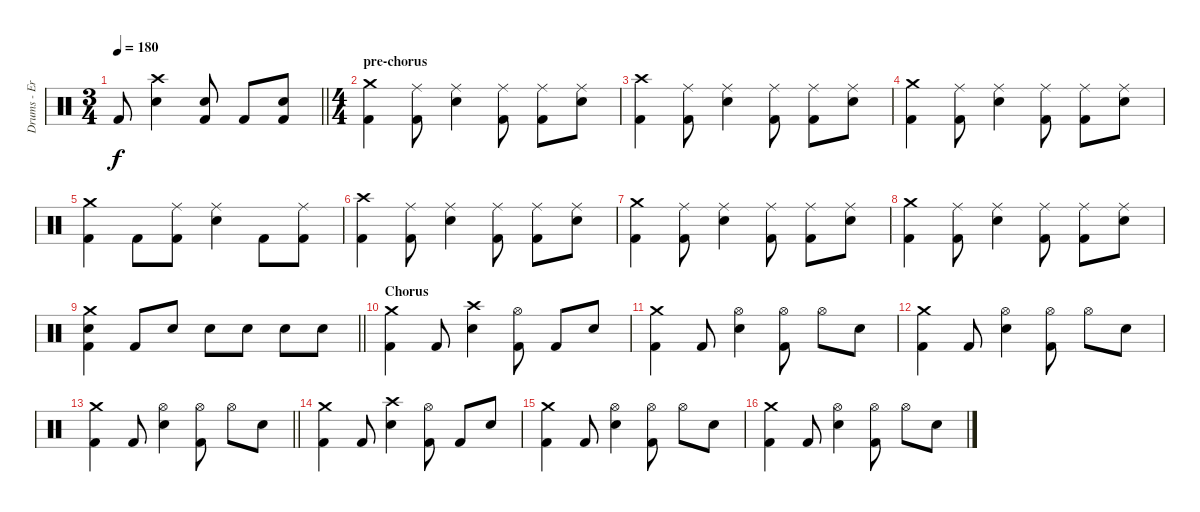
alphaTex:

\track ("Drums - Eric Young" "Drums - Er") {instrument percussion}
\staff {score}
\articulation defaults
\ts (3 4)
\tempo 180
\clef neutral
\barLineRight lightlight
\ks c "Kick (hit) 2".8{dy f}
("Crash high (hit)" "Electric Snare (hit)").4 ("Electric Snare (hit)" "Kick (hit) 2").8 "Kick (hit) 2".8 ("Electric Snare (hit)" "Kick (hit) 2").8 |
\ts (4 4)
\section ("" "pre-chorus")
("Crash medium (hit)" "Kick (hit) 2").4 ("Ride (middle)" "Kick (hit) 2").8 ("Ride (middle)" "Electric Snare (hit)").4 ("Ride (middle)" "Kick (hit) 2").8 ("Ride (middle)" "Kick (hit) 2").8 ("Ride (middle)" "Electric Snare (hit)").8 |
("Crash high (hit)" "Kick (hit) 2").4 ("Ride (middle)" "Kick (hit) 2").8 ("Ride (middle)" "Electric Snare (hit)").4 ("Ride (middle)" "Kick (hit) 2").8 ("Ride (middle)" "Kick (hit) 2").8 ("Ride (middle)" "Electric Snare (hit)").8 |
("Crash medium (hit)" "Kick (hit) 2").4 ("Ride (middle)" "Kick (hit) 2").8 ("Ride (middle)" "Electric Snare (hit)").4 ("Ride (middle)" "Kick (hit) 2").8 ("Ride (middle)" "Kick (hit) 2").8 ("Ride (middle)" "Electric Snare (hit)").8 |
("Crash medium (hit)" "Kick (hit) 2").4 "Kick (hit) 2".8 ("Ride (middle)" "Kick (hit) 2").8 ("Ride (middle)" "Electric Snare (hit)").4 "Kick (hit) 2".8 ("Ride (middle)" "Kick (hit) 2").8 |
("Crash high (hit)" "Kick (hit) 2").4 ("Ride (middle)" "Kick (hit) 2").8 ("Ride (middle)" "Electric Snare (hit)").4 ("Ride (middle)" "Kick (hit) 2").8 ("Ride (middle)" "Kick (hit) 2").8 ("Ride (middle)" "Electric Snare (hit)").8 |
("Crash medium (hit)" "Kick (hit) 2").4 ("Ride (middle)" "Kick (hit) 2").8 ("Ride (middle)" "Electric Snare (hit)").4 ("Ride (middle)" "Kick (hit) 2").8 ("Ride (middle)" "Kick (hit) 2").8 ("Ride (middle)" "Electric Snare (hit)").8 |
("Crash medium (hit)" "Kick (hit) 2").4 ("Ride (middle)" "Kick (hit) 2").8 ("Ride (middle)" "Electric Snare (hit)").4 ("Ride (middle)" "Kick (hit) 2").8 ("Ride (middle)" "Kick (hit) 2").8 ("Ride (middle)" "Electric Snare (hit)").8 |
\barLineRight lightlight
("Crash medium (hit)" "Electric Snare (hit)" "Kick (hit) 2").4 "Kick (hit) 2".8 "Electric Snare (hit)".8 "Electric Snare (hit)".8 "Electric Snare (hit)".8 "Electric Snare (hit)".8 "Electric Snare (hit)".8 |
\section ("" "Chorus")
("Crash medium (hit)" "Kick (hit) 2").4 "Kick (hit) 2".8 ("Crash high (hit)" "Electric Snare (hit)").4 ("Hi-Hat (open)" "Kick (hit) 2").8 "Kick (hit) 2".8 "Electric Snare (hit)".8 |
("Crash medium (hit)" "Kick (hit) 2").4 "Kick (hit) 2".8 ("Hi-Hat (open)" "Electric Snare (hit)").4 ("Hi-Hat (open)" "Kick (hit) 2").8 "Hi-Hat (open)".8 "Electric Snare (hit)".8 |
("Crash medium (hit)" "Kick (hit) 2").4 "Kick (hit) 2".8 ("Hi-Hat (open)" "Electric Snare (hit)").4 ("Hi-Hat (open)" "Kick (hit) 2").8 "Hi-Hat (open)".8 "Electric Snare (hit)".8 |
\barLineRight lightlight
("Crash medium (hit)" "Kick (hit) 2").4 "Kick (hit) 2".8 ("Hi-Hat (open)" "Electric Snare (hit)").4 ("Hi-Hat (open)" "Kick (hit) 2").8 "Hi-Hat (open)".8 "Electric Snare (hit)".8 |
("Crash medium (hit)" "Kick (hit) 2").4 "Kick (hit) 2".8 ("Crash high (hit)" "Electric Snare (hit)").4 ("Hi-Hat (open)" "Kick (hit) 2").8 "Kick (hit) 2".8 "Electric Snare (hit)".8 |
("Crash medium (hit)" "Kick (hit) 2").4 "Kick (hit) 2".8 ("Hi-Hat (open)" "Electric Snare (hit)").4 ("Hi-Hat (open)" "Kick (hit) 2").8 "Hi-Hat (open)".8 "Electric Snare (hit)".8 |
("Crash medium (hit)" "Kick (hit) 2").4 "Kick (hit) 2".8 ("Hi-Hat (open)" "Electric Snare (hit)").4 ("Hi-Hat (open)" "Kick (hit) 2").8 "Hi-Hat (open)".8 "Electric Snare (hit)".8
